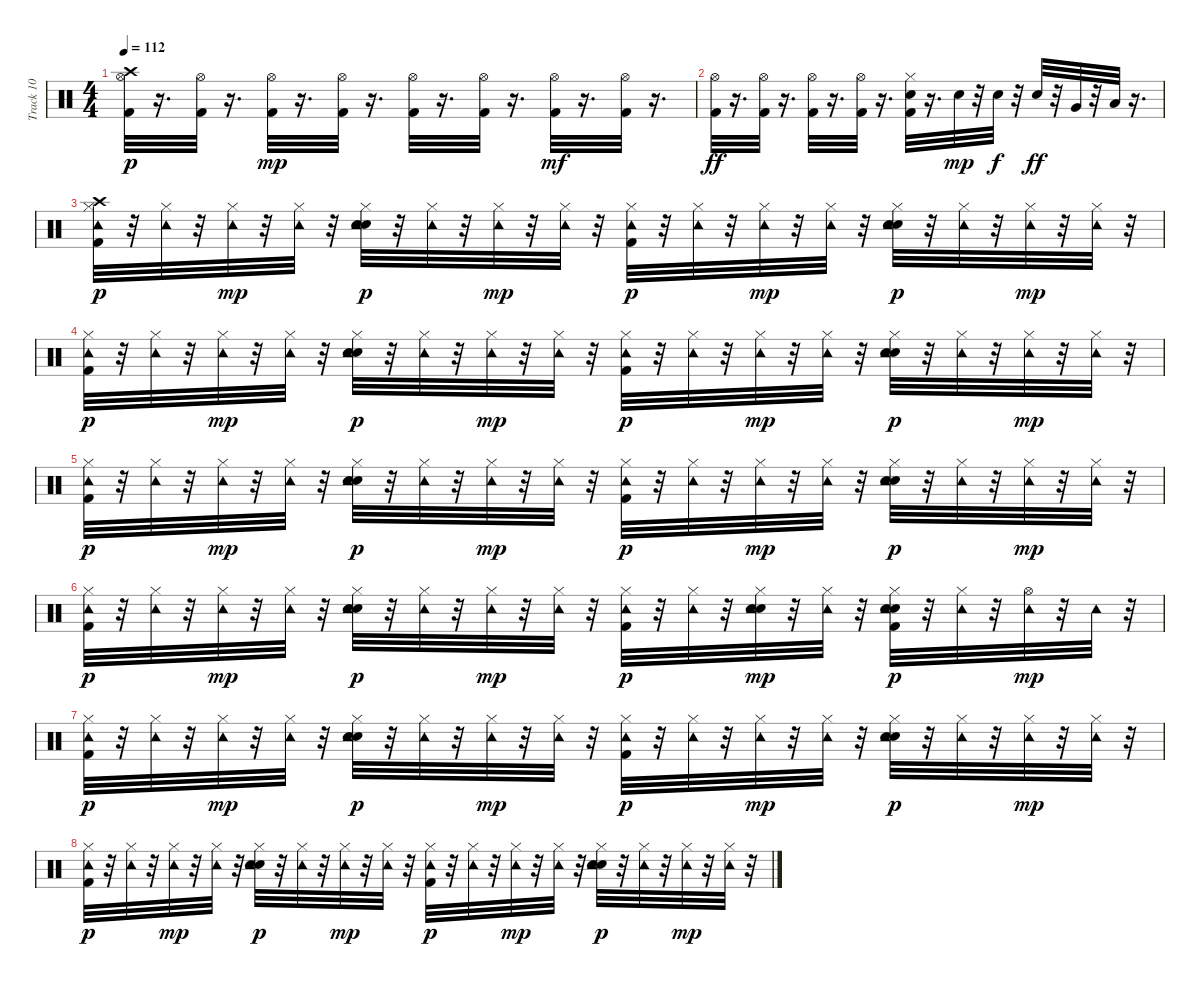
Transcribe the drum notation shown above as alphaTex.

\track ("Track 10" "Track 10") {instrument percussion}
\staff {score}
\articulation defaults
\ts (4 4)
\tempo 112
\clef neutral
\ks c
("Kick (hit) 2" "Hi-Hat (open)" "Crash high (hit)").32{dy p} r.16{d} ("Kick (hit) 2" "Hi-Hat (open)").32 r.16{d} ("Kick (hit) 2" "Hi-Hat (open)").32{dy mp} r.16{d} ("Kick (hit) 2" "Hi-Hat (open)").32 r.16{d} ("Kick (hit) 2" "Hi-Hat (open)").32 r.16{d} ("Kick (hit) 2" "Hi-Hat (open)").32 r.16{d} ("Kick (hit) 2" "Hi-Hat (open)").32{dy mf} r.16{d} ("Kick (hit) 2" "Hi-Hat (open)").32 r.16{d} |
("Kick (hit) 2" "Hi-Hat (open)").32{dy ff} r.16{d} ("Kick (hit) 2" "Hi-Hat (open)").32 r.16{d} ("Kick (hit) 2" "Hi-Hat (open)").32 r.16{d} ("Kick (hit) 2" "Hi-Hat (open)").32 r.16{d} ("Kick (hit) 2" "Electric Snare (hit)" "Hi-Hat (closed)").32 r.16{d} "Electric Snare (hit)".32{dy mp} r.32 "Electric Snare (hit)".32{dy f} r.32 "Electric Snare (hit)".32{dy ff} r.32 "Very Low Tom (hit)".32 r.32 "Low Floor Tom (hit)".32 r.16{d} |
("Kick (hit) 2" "Hi-Hat (closed)" "Crash high (hit)" "Tambourine (hit)").32{dy p} r.32 ("Hi-Hat (closed)" "Tambourine (hit)").32 r.32 ("Hi-Hat (closed)" "Tambourine (hit)").32{dy mp} r.32 ("Hi-Hat (closed)" "Tambourine (hit)").32 r.32 ("Hand Clap (hit)" "Electric Snare (hit)" "Hi-Hat (closed)" "Tambourine (hit)").32{dy p} r.32 ("Hi-Hat (closed)" "Tambourine (hit)").32 r.32 ("Hi-Hat (closed)" "Tambourine (hit)").32{dy mp} r.32 ("Hi-Hat (closed)" "Tambourine (hit)").32 r.32 ("Kick (hit) 2" "Hi-Hat (closed)" "Tambourine (hit)").32{dy p} r.32 ("Hi-Hat (closed)" "Tambourine (hit)").32 r.32 ("Hi-Hat (closed)" "Tambourine (hit)").32{dy mp} r.32 ("Hi-Hat (closed)" "Tambourine (hit)").32 r.32 ("Hand Clap (hit)" "Electric Snare (hit)" "Hi-Hat (closed)" "Tambourine (hit)").32{dy p} r.32 ("Hi-Hat (closed)" "Tambourine (hit)").32 r.32 ("Hi-Hat (closed)" "Tambourine (hit)").32{dy mp} r.32 ("Hi-Hat (closed)" "Tambourine (hit)").32 r.32 |
("Kick (hit) 2" "Hi-Hat (closed)" "Tambourine (hit)").32{dy p} r.32 ("Hi-Hat (closed)" "Tambourine (hit)").32 r.32 ("Hi-Hat (closed)" "Tambourine (hit)").32{dy mp} r.32 ("Hi-Hat (closed)" "Tambourine (hit)").32 r.32 ("Hand Clap (hit)" "Electric Snare (hit)" "Hi-Hat (closed)" "Tambourine (hit)").32{dy p} r.32 ("Hi-Hat (closed)" "Tambourine (hit)").32 r.32 ("Hi-Hat (closed)" "Tambourine (hit)").32{dy mp} r.32 ("Hi-Hat (closed)" "Tambourine (hit)").32 r.32 ("Kick (hit) 2" "Hi-Hat (closed)" "Tambourine (hit)").32{dy p} r.32 ("Hi-Hat (closed)" "Tambourine (hit)").32 r.32 ("Hi-Hat (closed)" "Tambourine (hit)").32{dy mp} r.32 ("Hi-Hat (closed)" "Tambourine (hit)").32 r.32 ("Hand Clap (hit)" "Electric Snare (hit)" "Hi-Hat (closed)" "Tambourine (hit)").32{dy p} r.32 ("Hi-Hat (closed)" "Tambourine (hit)").32 r.32 ("Hi-Hat (closed)" "Tambourine (hit)").32{dy mp} r.32 ("Hi-Hat (closed)" "Tambourine (hit)").32 r.32 |
("Kick (hit) 2" "Hi-Hat (closed)" "Tambourine (hit)").32{dy p} r.32 ("Hi-Hat (closed)" "Tambourine (hit)").32 r.32 ("Hi-Hat (closed)" "Tambourine (hit)").32{dy mp} r.32 ("Hi-Hat (closed)" "Tambourine (hit)").32 r.32 ("Hand Clap (hit)" "Electric Snare (hit)" "Hi-Hat (closed)" "Tambourine (hit)").32{dy p} r.32 ("Hi-Hat (closed)" "Tambourine (hit)").32 r.32 ("Hi-Hat (closed)" "Tambourine (hit)").32{dy mp} r.32 ("Hi-Hat (closed)" "Tambourine (hit)").32 r.32 ("Kick (hit) 2" "Hi-Hat (closed)" "Tambourine (hit)").32{dy p} r.32 ("Hi-Hat (closed)" "Tambourine (hit)").32 r.32 ("Hi-Hat (closed)" "Tambourine (hit)").32{dy mp} r.32 ("Hi-Hat (closed)" "Tambourine (hit)").32 r.32 ("Hand Clap (hit)" "Electric Snare (hit)" "Hi-Hat (closed)" "Tambourine (hit)").32{dy p} r.32 ("Hi-Hat (closed)" "Tambourine (hit)").32 r.32 ("Hi-Hat (closed)" "Tambourine (hit)").32{dy mp} r.32 ("Hi-Hat (closed)" "Tambourine (hit)").32 r.32 |
("Kick (hit) 2" "Hi-Hat (closed)" "Tambourine (hit)").32{dy p} r.32 ("Hi-Hat (closed)" "Tambourine (hit)").32 r.32 ("Hi-Hat (closed)" "Tambourine (hit)").32{dy mp} r.32 ("Hi-Hat (closed)" "Tambourine (hit)").32 r.32 ("Hand Clap (hit)" "Electric Snare (hit)" "Hi-Hat (closed)" "Tambourine (hit)").32{dy p} r.32 ("Hi-Hat (closed)" "Tambourine (hit)").32 r.32 ("Hi-Hat (closed)" "Tambourine (hit)").32{dy mp} r.32 ("Hi-Hat (closed)" "Tambourine (hit)").32 r.32 ("Kick (hit) 2" "Hi-Hat (closed)" "Tambourine (hit)").32{dy p} r.32 ("Hi-Hat (closed)" "Tambourine (hit)").32 r.32 ("Hand Clap (hit)" "Electric Snare (hit)" "Hi-Hat (closed)" "Tambourine (hit)").32{dy mp} r.32 ("Hi-Hat (closed)" "Tambourine (hit)").32 r.32 ("Kick (hit) 2" "Hand Clap (hit)" "Electric Snare (hit)" "Hi-Hat (closed)" "Tambourine (hit)").32{dy p} r.32 ("Hi-Hat (closed)" "Tambourine (hit)").32 r.32 ("Hi-Hat (open)" "Tambourine (hit)").32{dy mp} r.32 "Tambourine (hit)".32 r.32 |
("Kick (hit) 2" "Hi-Hat (closed)" "Tambourine (hit)").32{dy p} r.32 ("Hi-Hat (closed)" "Tambourine (hit)").32 r.32 ("Hi-Hat (closed)" "Tambourine (hit)").32{dy mp} r.32 ("Hi-Hat (closed)" "Tambourine (hit)").32 r.32 ("Hand Clap (hit)" "Electric Snare (hit)" "Hi-Hat (closed)" "Tambourine (hit)").32{dy p} r.32 ("Hi-Hat (closed)" "Tambourine (hit)").32 r.32 ("Hi-Hat (closed)" "Tambourine (hit)").32{dy mp} r.32 ("Hi-Hat (closed)" "Tambourine (hit)").32 r.32 ("Kick (hit) 2" "Hi-Hat (closed)" "Tambourine (hit)").32{dy p} r.32 ("Hi-Hat (closed)" "Tambourine (hit)").32 r.32 ("Hi-Hat (closed)" "Tambourine (hit)").32{dy mp} r.32 ("Hi-Hat (closed)" "Tambourine (hit)").32 r.32 ("Hand Clap (hit)" "Electric Snare (hit)" "Hi-Hat (closed)" "Tambourine (hit)").32{dy p} r.32 ("Hi-Hat (closed)" "Tambourine (hit)").32 r.32 ("Hi-Hat (closed)" "Tambourine (hit)").32{dy mp} r.32 ("Hi-Hat (closed)" "Tambourine (hit)").32 r.32 |
("Kick (hit) 2" "Hi-Hat (closed)" "Tambourine (hit)").32{dy p} r.32 ("Hi-Hat (closed)" "Tambourine (hit)").32 r.32 ("Hi-Hat (closed)" "Tambourine (hit)").32{dy mp} r.32 ("Hi-Hat (closed)" "Tambourine (hit)").32 r.32 ("Hand Clap (hit)" "Electric Snare (hit)" "Hi-Hat (closed)" "Tambourine (hit)").32{dy p} r.32 ("Hi-Hat (closed)" "Tambourine (hit)").32 r.32 ("Hi-Hat (closed)" "Tambourine (hit)").32{dy mp} r.32 ("Hi-Hat (closed)" "Tambourine (hit)").32 r.32 ("Kick (hit) 2" "Hi-Hat (closed)" "Tambourine (hit)").32{dy p} r.32 ("Hi-Hat (closed)" "Tambourine (hit)").32 r.32 ("Hi-Hat (closed)" "Tambourine (hit)").32{dy mp} r.32 ("Hi-Hat (closed)" "Tambourine (hit)").32 r.32 ("Hand Clap (hit)" "Electric Snare (hit)" "Hi-Hat (closed)" "Tambourine (hit)").32{dy p} r.32 ("Hi-Hat (closed)" "Tambourine (hit)").32 r.32 ("Hi-Hat (closed)" "Tambourine (hit)").32{dy mp} r.32 ("Hi-Hat (closed)" "Tambourine (hit)").32 r.32
